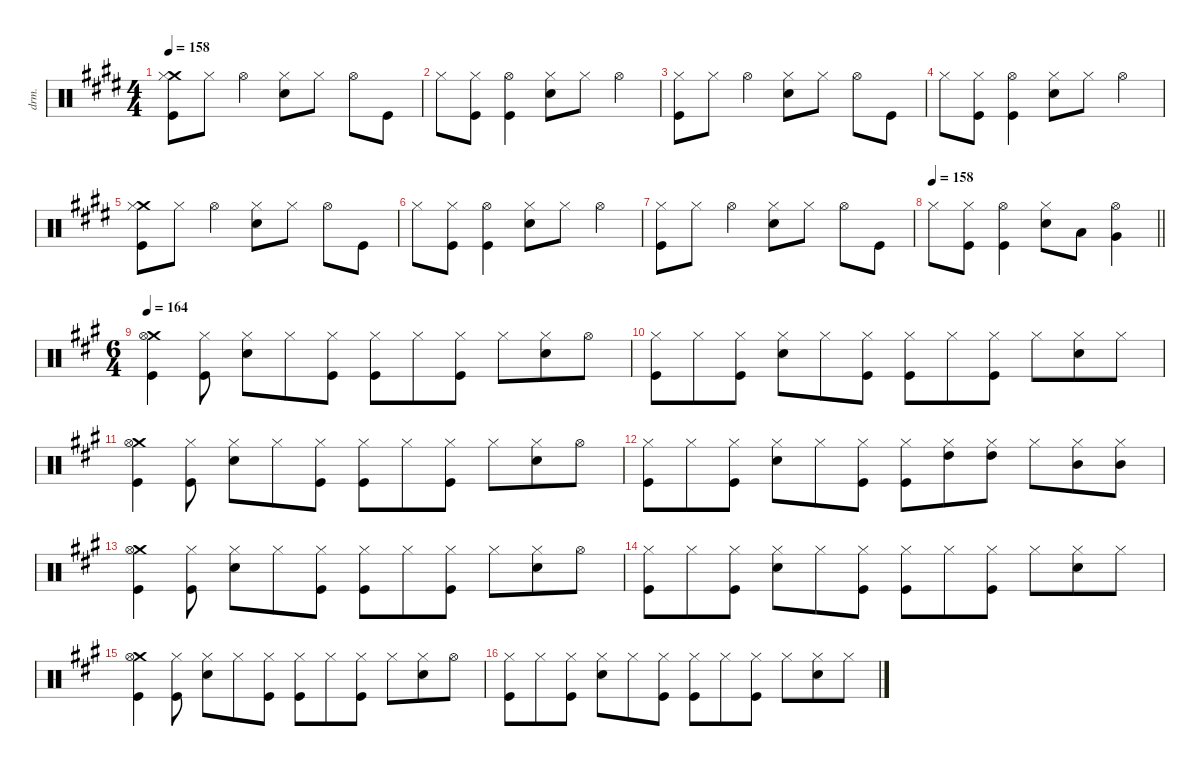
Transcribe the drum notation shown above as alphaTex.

\defaultSystemsLayout 4
\hideDynamics
\bracketExtendMode groupsimilarinstruments
\otherSystemsTrackNameOrientation horizontal
\track ("Drums" "drm.") {defaultSystemsLayout 4 instrument percussion}
\staff {score}
\articulation defaults
\ts (4 4)
\tempo 158
\clef neutral
\ks c#minor
("Crash medium (hit)"{acc forcenatural} "Hi-Hat (closed)"{acc forcenatural} "Kick (hit)"{acc forcenatural}).8{dy f beam Down} "Hi-Hat (closed)"{acc forcenatural}.8{dy mf beam Down} "Hi-Hat (open)"{acc forcenatural}.4{dy f beam Down} ("Hi-Hat (closed)"{acc forcenatural} "Snare (hit) 2"{acc forcenatural}).8{beam Down} "Hi-Hat (closed)"{acc forcenatural}.8{dy mf beam Down} "Hi-Hat (open)"{acc forcenatural}.8{dy f beam Down} "Kick (hit)"{acc forcenatural}.8{beam Down} |
"Hi-Hat (closed)"{acc forcenatural}.8{beam Down} ("Hi-Hat (closed)"{acc forcenatural} "Kick (hit)"{acc forcenatural}).8{dy mf beam Down} ("Hi-Hat (open)"{acc forcenatural} "Kick (hit)"{acc forcenatural}).4{dy f beam Down} ("Hi-Hat (closed)"{acc forcenatural} "Snare (hit) 2"{acc forcenatural}).8{beam Down} "Hi-Hat (closed)"{acc forcenatural}.8{dy mf beam Down} "Hi-Hat (open)"{acc forcenatural}.4{dy f beam Down} |
("Hi-Hat (closed)"{acc forcenatural} "Kick (hit)"{acc forcenatural}).8{beam Down} "Hi-Hat (closed)"{acc forcenatural}.8{dy mf beam Down} "Hi-Hat (open)"{acc forcenatural}.4{dy f beam Down} ("Hi-Hat (closed)"{acc forcenatural} "Snare (hit) 2"{acc forcenatural}).8{beam Down} "Hi-Hat (closed)"{acc forcenatural}.8{dy mf beam Down} "Hi-Hat (open)"{acc forcenatural}.8{dy f beam Down} "Kick (hit)"{acc forcenatural}.8{beam Down} |
"Hi-Hat (closed)"{acc forcenatural}.8{beam Down} ("Hi-Hat (closed)"{acc forcenatural} "Kick (hit)"{acc forcenatural}).8{dy mf beam Down} ("Hi-Hat (open)"{acc forcenatural} "Kick (hit)"{acc forcenatural}).4{dy f beam Down} ("Hi-Hat (closed)"{acc forcenatural} "Snare (hit) 2"{acc forcenatural}).8{beam Down} "Hi-Hat (closed)"{acc forcenatural}.8{dy mf beam Down} "Hi-Hat (open)"{acc forcenatural}.4{dy f beam Down} |
("Crash medium (hit)"{acc forcenatural} "Hi-Hat (closed)"{acc forcenatural} "Kick (hit)"{acc forcenatural}).8{beam Down} "Hi-Hat (closed)"{acc forcenatural}.8{dy mf beam Down} "Hi-Hat (open)"{acc forcenatural}.4{dy f beam Down} ("Hi-Hat (closed)"{acc forcenatural} "Snare (hit) 2"{acc forcenatural}).8{beam Down} "Hi-Hat (closed)"{acc forcenatural}.8{dy mf beam Down} "Hi-Hat (open)"{acc forcenatural}.8{dy f beam Down} "Kick (hit)"{acc forcenatural}.8{beam Down} |
"Hi-Hat (closed)"{acc forcenatural}.8{beam Down} ("Hi-Hat (closed)"{acc forcenatural} "Kick (hit)"{acc forcenatural}).8{dy mf beam Down} ("Hi-Hat (open)"{acc forcenatural} "Kick (hit)"{acc forcenatural}).4{dy f beam Down} ("Hi-Hat (closed)"{acc forcenatural} "Snare (hit) 2"{acc forcenatural}).8{beam Down} "Hi-Hat (closed)"{acc forcenatural}.8{dy mf beam Down} "Hi-Hat (open)"{acc forcenatural}.4{dy f beam Down} |
("Hi-Hat (closed)"{acc forcenatural} "Kick (hit)"{acc forcenatural}).8{beam Down} "Hi-Hat (closed)"{acc forcenatural}.8{dy mf beam Down} "Hi-Hat (open)"{acc forcenatural}.4{dy f beam Down} ("Hi-Hat (closed)"{acc forcenatural} "Snare (hit) 2"{acc forcenatural}).8{beam Down} "Hi-Hat (closed)"{acc forcenatural}.8{dy mf beam Down} "Hi-Hat (open)"{acc forcenatural}.8{dy f beam Down} "Kick (hit)"{acc forcenatural}.8{beam Down} |
\tempo 158
\barLineRight lightlight "Hi-Hat (closed)"{acc forcenatural}.8{beam Down}
("Hi-Hat (closed)"{acc forcenatural} "Kick (hit)"{acc forcenatural}).8{dy mf beam Down} ("Hi-Hat (open)"{acc forcenatural} "Kick (hit)"{acc forcenatural}).4{dy f beam Down} ("Hi-Hat (closed)"{acc forcenatural} "Snare (hit) 2"{acc forcenatural}).8{beam Down} "Low Tom (hit)"{acc forcenatural}.8{beam Down} ("Hi-Hat (open)"{acc forcenatural} "Very Low Tom (hit)"{acc forcenatural}).4{beam Down} |
\ts (6 4)
\beaming (8 3 3 3 3)
\tempo 164
\ks f#minor
("Crash medium (hit)"{acc forcenatural} "Hi-Hat (open)"{acc forcenatural} "Kick (hit)"{acc forcenatural}).4{beam Down} ("Hi-Hat (closed)"{acc forcenatural} "Kick (hit)"{acc forcenatural}).8{beam Down} ("Hi-Hat (closed)"{acc forcenatural} "Snare (hit) 2"{acc forcenatural}).8{beam Down} "Hi-Hat (closed)"{acc forcenatural}.8{beam Down} ("Hi-Hat (closed)"{acc forcenatural} "Kick (hit)"{acc forcenatural}).8{beam Down} ("Hi-Hat (closed)"{acc forcenatural} "Kick (hit)"{acc forcenatural}).8{beam Down} "Hi-Hat (closed)"{acc forcenatural}.8{beam Down} ("Hi-Hat (closed)"{acc forcenatural} "Kick (hit)"{acc forcenatural}).8{beam Down} "Hi-Hat (closed)"{acc forcenatural}.8{beam Down} ("Hi-Hat (closed)"{acc forcenatural} "Snare (hit) 2"{acc forcenatural}).8{beam Down} "Hi-Hat (open)"{acc forcenatural}.8{beam Down} |
("Hi-Hat (closed)"{acc forcenatural} "Kick (hit)"{acc forcenatural}).8{beam Down} "Hi-Hat (closed)"{acc forcenatural}.8{beam Down} ("Hi-Hat (closed)"{acc forcenatural} "Kick (hit)"{acc forcenatural}).8{beam Down} ("Hi-Hat (closed)"{acc forcenatural} "Snare (hit) 2"{acc forcenatural}).8{beam Down} "Hi-Hat (closed)"{acc forcenatural}.8{beam Down} ("Hi-Hat (closed)"{acc forcenatural} "Kick (hit)"{acc forcenatural}).8{beam Down} ("Hi-Hat (closed)"{acc forcenatural} "Kick (hit)"{acc forcenatural}).8{beam Down} "Hi-Hat (closed)"{acc forcenatural}.8{beam Down} ("Hi-Hat (closed)"{acc forcenatural} "Kick (hit)"{acc forcenatural}).8{beam Down} "Hi-Hat (closed)"{acc forcenatural}.8{beam Down} ("Hi-Hat (closed)"{acc forcenatural} "Snare (hit) 2"{acc forcenatural}).8{beam Down} "Hi-Hat (closed)"{acc forcenatural}.8{beam Down} |
("Crash medium (hit)"{acc forcenatural} "Hi-Hat (open)"{acc forcenatural} "Kick (hit)"{acc forcenatural}).4{beam Down} ("Hi-Hat (closed)"{acc forcenatural} "Kick (hit)"{acc forcenatural}).8{beam Down} ("Hi-Hat (closed)"{acc forcenatural} "Snare (hit) 2"{acc forcenatural}).8{beam Down} "Hi-Hat (closed)"{acc forcenatural}.8{beam Down} ("Hi-Hat (closed)"{acc forcenatural} "Kick (hit)"{acc forcenatural}).8{beam Down} ("Hi-Hat (closed)"{acc forcenatural} "Kick (hit)"{acc forcenatural}).8{beam Down} "Hi-Hat (closed)"{acc forcenatural}.8{beam Down} ("Hi-Hat (closed)"{acc forcenatural} "Kick (hit)"{acc forcenatural}).8{beam Down} "Hi-Hat (closed)"{acc forcenatural}.8{beam Down} ("Hi-Hat (closed)"{acc forcenatural} "Snare (hit) 2"{acc forcenatural}).8{beam Down} "Hi-Hat (open)"{acc forcenatural}.8{beam Down} |
("Hi-Hat (closed)"{acc forcenatural} "Kick (hit)"{acc forcenatural}).8{beam Down} "Hi-Hat (closed)"{acc forcenatural}.8{beam Down} ("Hi-Hat (closed)"{acc forcenatural} "Kick (hit)"{acc forcenatural}).8{beam Down} ("Hi-Hat (closed)"{acc forcenatural} "Snare (hit) 2"{acc forcenatural}).8{beam Down} "Hi-Hat (closed)"{acc forcenatural}.8{beam Down} ("Hi-Hat (closed)"{acc forcenatural} "Kick (hit)"{acc forcenatural}).8{beam Down} ("Hi-Hat (closed)"{acc forcenatural} "Kick (hit)"{acc forcenatural}).8{beam Down} ("Hi-Hat (closed)"{acc forcenatural} "High Tom (hit)"{acc forcenatural}).8{beam Down} ("Hi-Hat (closed)"{acc forcenatural} "High Tom (hit)"{acc forcenatural}).8{beam Down} "Hi-Hat (closed)"{acc forcenatural}.8{beam Down} ("Hi-Hat (closed)"{acc forcenatural} "Mid Tom (hit)"{acc forcenatural}).8{beam Down} ("Hi-Hat (closed)"{acc forcenatural} "Mid Tom (hit)"{acc forcenatural}).8{beam Down} |
("Crash medium (hit)"{acc forcenatural} "Hi-Hat (open)"{acc forcenatural} "Kick (hit)"{acc forcenatural}).4{beam Down} ("Hi-Hat (closed)"{acc forcenatural} "Kick (hit)"{acc forcenatural}).8{beam Down} ("Hi-Hat (closed)"{acc forcenatural} "Snare (hit) 2"{acc forcenatural}).8{beam Down} "Hi-Hat (closed)"{acc forcenatural}.8{beam Down} ("Hi-Hat (closed)"{acc forcenatural} "Kick (hit)"{acc forcenatural}).8{beam Down} ("Hi-Hat (closed)"{acc forcenatural} "Kick (hit)"{acc forcenatural}).8{beam Down} "Hi-Hat (closed)"{acc forcenatural}.8{beam Down} ("Hi-Hat (closed)"{acc forcenatural} "Kick (hit)"{acc forcenatural}).8{beam Down} "Hi-Hat (closed)"{acc forcenatural}.8{beam Down} ("Hi-Hat (closed)"{acc forcenatural} "Snare (hit) 2"{acc forcenatural}).8{beam Down} "Hi-Hat (open)"{acc forcenatural}.8{beam Down} |
("Hi-Hat (closed)"{acc forcenatural} "Kick (hit)"{acc forcenatural}).8{beam Down} "Hi-Hat (closed)"{acc forcenatural}.8{beam Down} ("Hi-Hat (closed)"{acc forcenatural} "Kick (hit)"{acc forcenatural}).8{beam Down} ("Hi-Hat (closed)"{acc forcenatural} "Snare (hit) 2"{acc forcenatural}).8{beam Down} "Hi-Hat (closed)"{acc forcenatural}.8{beam Down} ("Hi-Hat (closed)"{acc forcenatural} "Kick (hit)"{acc forcenatural}).8{beam Down} ("Hi-Hat (closed)"{acc forcenatural} "Kick (hit)"{acc forcenatural}).8{beam Down} "Hi-Hat (closed)"{acc forcenatural}.8{beam Down} ("Hi-Hat (closed)"{acc forcenatural} "Kick (hit)"{acc forcenatural}).8{beam Down} "Hi-Hat (closed)"{acc forcenatural}.8{beam Down} ("Hi-Hat (closed)"{acc forcenatural} "Snare (hit) 2"{acc forcenatural}).8{beam Down} "Hi-Hat (closed)"{acc forcenatural}.8{beam Down} |
("Crash medium (hit)"{acc forcenatural} "Hi-Hat (open)"{acc forcenatural} "Kick (hit)"{acc forcenatural}).4{beam Down} ("Hi-Hat (closed)"{acc forcenatural} "Kick (hit)"{acc forcenatural}).8{beam Down} ("Hi-Hat (closed)"{acc forcenatural} "Snare (hit) 2"{acc forcenatural}).8{beam Down} "Hi-Hat (closed)"{acc forcenatural}.8{beam Down} ("Hi-Hat (closed)"{acc forcenatural} "Kick (hit)"{acc forcenatural}).8{beam Down} ("Hi-Hat (closed)"{acc forcenatural} "Kick (hit)"{acc forcenatural}).8{beam Down} "Hi-Hat (closed)"{acc forcenatural}.8{beam Down} ("Hi-Hat (closed)"{acc forcenatural} "Kick (hit)"{acc forcenatural}).8{beam Down} "Hi-Hat (closed)"{acc forcenatural}.8{beam Down} ("Hi-Hat (closed)"{acc forcenatural} "Snare (hit) 2"{acc forcenatural}).8{beam Down} "Hi-Hat (open)"{acc forcenatural}.8{beam Down} |
("Hi-Hat (closed)"{acc forcenatural} "Kick (hit)"{acc forcenatural}).8{beam Down} "Hi-Hat (closed)"{acc forcenatural}.8{beam Down} ("Hi-Hat (closed)"{acc forcenatural} "Kick (hit)"{acc forcenatural}).8{beam Down} ("Hi-Hat (closed)"{acc forcenatural} "Snare (hit) 2"{acc forcenatural}).8{beam Down} "Hi-Hat (closed)"{acc forcenatural}.8{beam Down} ("Hi-Hat (closed)"{acc forcenatural} "Kick (hit)"{acc forcenatural}).8{beam Down} ("Hi-Hat (closed)"{acc forcenatural} "Kick (hit)"{acc forcenatural}).8{beam Down} "Hi-Hat (closed)"{acc forcenatural}.8{beam Down} ("Hi-Hat (closed)"{acc forcenatural} "Kick (hit)"{acc forcenatural}).8{beam Down} "Hi-Hat (closed)"{acc forcenatural}.8{beam Down} ("Hi-Hat (closed)"{acc forcenatural} "Snare (hit) 2"{acc forcenatural}).8{beam Down} "Hi-Hat (closed)"{acc forcenatural}.8{beam Down}
